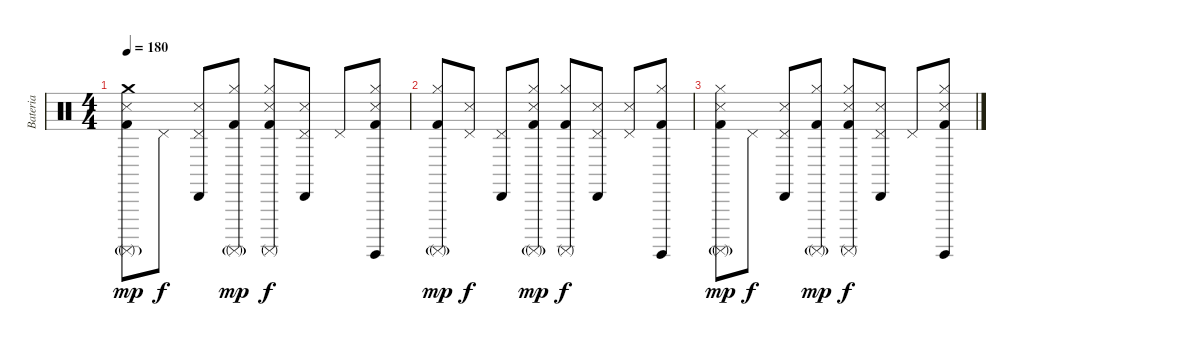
\track ("Bateria" "Bateria") {instrument percussion}
\staff {score}
\articulation defaults
\ts (4 4)
\tempo 180
\clef neutral
\ks c
("Crash medium (hit)" "Snare (side stick) 3" "Surdo (mute)"{g} "Kick (hit) 2").8{dy mp volume 4} "Pedal Hi-Hat (hit)".8{dy f} ("Pedal Hi-Hat (hit)" "Cabasa (hit)" "Snare (side stick) 3").8 ("Hi-Hat (closed)" "Surdo (mute)"{g} "Kick (hit) 2").8{dy mp} ("Hi-Hat (closed)" "Snare (side stick) 3" "Surdo (mute)" "Kick (hit) 2").8{dy f} ("Pedal Hi-Hat (hit)" "Cabasa (hit)" "Snare (side stick) 3").8 "Pedal Hi-Hat (hit)".8 ("Hi-Hat (closed)" "Snare (side stick) 3" "Surdo (hit)" "Kick (hit) 2").8 |
("Hi-Hat (closed)" "Surdo (mute)"{g} "Kick (hit) 2").8{dy mp} ("Pedal Hi-Hat (hit)" "Snare (side stick) 3").8{dy f volume 2} ("Pedal Hi-Hat (hit)" "Cabasa (hit)").8 ("Hi-Hat (closed)" "Snare (side stick) 3" "Surdo (mute)"{g} "Kick (hit) 2").8{dy mp} ("Hi-Hat (closed)" "Surdo (mute)" "Kick (hit) 2").8{dy f} ("Pedal Hi-Hat (hit)" "Cabasa (hit)" "Snare (side stick) 3").8 ("Pedal Hi-Hat (hit)" "Snare (side stick) 3").8 ("Hi-Hat (closed)" "Surdo (hit)" "Kick (hit) 2").8 |
("Hi-Hat (closed)" "Snare (side stick) 3" "Surdo (mute)"{g} "Kick (hit) 2").8{dy mp volume 0} "Pedal Hi-Hat (hit)".8{dy f} ("Pedal Hi-Hat (hit)" "Cabasa (hit)" "Snare (side stick) 3").8 ("Hi-Hat (closed)" "Surdo (mute)"{g} "Kick (hit) 2").8{dy mp} ("Hi-Hat (closed)" "Snare (side stick) 3" "Surdo (mute)" "Kick (hit) 2").8{dy f} ("Pedal Hi-Hat (hit)" "Cabasa (hit)" "Snare (side stick) 3").8 "Pedal Hi-Hat (hit)".8 ("Hi-Hat (closed)" "Snare (side stick) 3" "Surdo (hit)" "Kick (hit) 2").8
